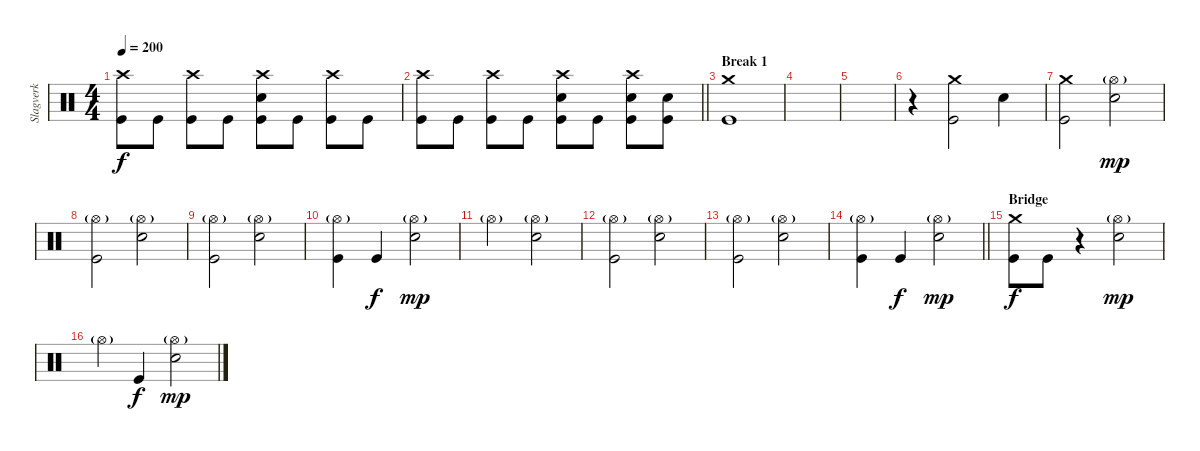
\track ("Slagverk" "Slagverk") {instrument percussion}
\staff {score}
\articulation defaults
\ts (4 4)
\tempo 200
\clef neutral
\ks c
("Crash high (hit)" "Kick (hit)").8{dy f} "Kick (hit)".8 ("Crash high (hit)" "Kick (hit)").8 "Kick (hit)".8 ("Crash high (hit)" "Snare (hit) 2" "Kick (hit)").8 "Kick (hit)".8 ("Crash high (hit)" "Kick (hit)").8 "Kick (hit)".8 |
\barLineRight lightlight
("Crash high (hit)" "Kick (hit)").8 "Kick (hit)".8 ("Crash high (hit)" "Kick (hit)").8 "Kick (hit)".8 ("Crash high (hit)" "Snare (hit) 2" "Kick (hit)").8 "Kick (hit)".8 ("Crash high (hit)" "Snare (hit) 2" "Kick (hit)").8 ("Snare (hit) 2" "Kick (hit)").8 |
\section ("" "Break 1")
("Crash medium (hit)" "Kick (hit)").1 |
|
|
r.4 ("Crash medium (hit)" "Kick (hit)").2 "Snare (hit) 2".4 |
("Crash medium (hit)" "Kick (hit)").2 ("Hi-Hat (open)"{g} "Snare (hit) 2").2{dy mp} |
("Hi-Hat (open)"{g} "Kick (hit)").2 ("Hi-Hat (open)"{g} "Snare (hit) 2").2 |
("Hi-Hat (open)"{g} "Kick (hit)").2 ("Hi-Hat (open)"{g} "Snare (hit) 2").2 |
("Hi-Hat (open)"{g} "Kick (hit)").4 "Kick (hit)".4{dy f} ("Hi-Hat (open)"{g} "Snare (hit) 2").2{dy mp} |
"Hi-Hat (open)"{g}.2 ("Hi-Hat (open)"{g} "Snare (hit) 2").2 |
("Hi-Hat (open)"{g} "Kick (hit)").2 ("Hi-Hat (open)"{g} "Snare (hit) 2").2 |
("Hi-Hat (open)"{g} "Kick (hit)").2 ("Hi-Hat (open)"{g} "Snare (hit) 2").2 |
\barLineRight lightlight
("Hi-Hat (open)"{g} "Kick (hit)").4 "Kick (hit)".4{dy f} ("Hi-Hat (open)"{g} "Snare (hit) 2").2{dy mp} |
\section ("" "Bridge")
("Crash medium (hit)" "Kick (hit)").8{dy f} "Kick (hit)".8 r.4 ("Hi-Hat (open)"{g} "Snare (hit) 2").2{dy mp} |
"Hi-Hat (open)"{g}.4 "Kick (hit)".4{dy f} ("Hi-Hat (open)"{g} "Snare (hit) 2").2{dy mp}
